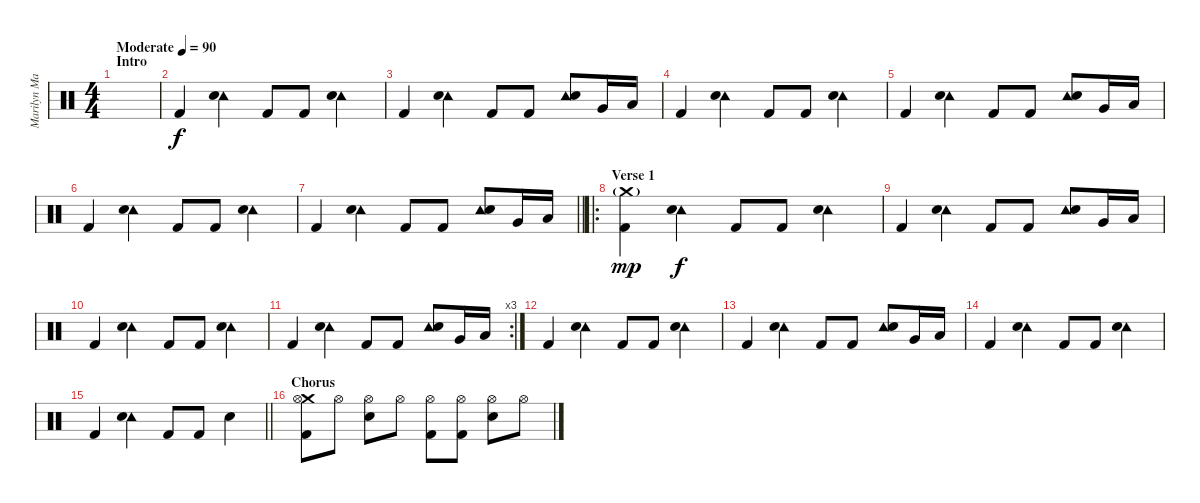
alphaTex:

\track ("Marilyn Manson" "Marilyn Ma") {instrument percussion}
\staff {score}
\articulation defaults
\ts (4 4)
\section ("" "Intro")
\tempo (90 "Moderate")
\clef neutral
\ks c
|
"Kick (hit) 2".4 ("Tambourine (hit)" "Snare (hit) 2").4 "Kick (hit) 2".8 "Kick (hit) 2".8 ("Tambourine (hit)" "Snare (hit) 2").4 |
"Kick (hit) 2".4 ("Tambourine (hit)" "Snare (hit) 2").4 "Kick (hit) 2".8 "Kick (hit) 2".8 ("Tambourine (hit)" "Snare (hit) 2").8 "Very Low Tom (hit)".16 "Low Floor Tom (hit)".16 |
"Kick (hit) 2".4 ("Tambourine (hit)" "Snare (hit) 2").4 "Kick (hit) 2".8 "Kick (hit) 2".8 ("Tambourine (hit)" "Snare (hit) 2").4 |
"Kick (hit) 2".4 ("Tambourine (hit)" "Snare (hit) 2").4 "Kick (hit) 2".8 "Kick (hit) 2".8 ("Tambourine (hit)" "Snare (hit) 2").8 "Very Low Tom (hit)".16 "Low Floor Tom (hit)".16 |
"Kick (hit) 2".4 ("Tambourine (hit)" "Snare (hit) 2").4 "Kick (hit) 2".8 "Kick (hit) 2".8 ("Tambourine (hit)" "Snare (hit) 2").4 |
\barLineRight lightlight "Kick (hit) 2".4
("Tambourine (hit)" "Snare (hit) 2").4 "Kick (hit) 2".8 "Kick (hit) 2".8 ("Tambourine (hit)" "Snare (hit) 2").8 "Very Low Tom (hit)".16 "Low Floor Tom (hit)".16 |
\ro
\section ("" "Verse 1")
("Crash medium (hit)"{g} "Kick (hit) 2").4{dy mp} ("Tambourine (hit)" "Snare (hit) 2").4{dy f} "Kick (hit) 2".8 "Kick (hit) 2".8 ("Tambourine (hit)" "Snare (hit) 2").4 |
"Kick (hit) 2".4 ("Tambourine (hit)" "Snare (hit) 2").4 "Kick (hit) 2".8 "Kick (hit) 2".8 ("Tambourine (hit)" "Snare (hit) 2").8 "Very Low Tom (hit)".16 "Low Floor Tom (hit)".16 |
"Kick (hit) 2".4 ("Tambourine (hit)" "Snare (hit) 2").4 "Kick (hit) 2".8 "Kick (hit) 2".8 ("Tambourine (hit)" "Snare (hit) 2").4 |
\rc 3 "Kick (hit) 2".4
("Tambourine (hit)" "Snare (hit) 2").4 "Kick (hit) 2".8 "Kick (hit) 2".8 ("Tambourine (hit)" "Snare (hit) 2").8 "Very Low Tom (hit)".16 "Low Floor Tom (hit)".16 |
"Kick (hit) 2".4 ("Tambourine (hit)" "Snare (hit) 2").4 "Kick (hit) 2".8 "Kick (hit) 2".8 ("Tambourine (hit)" "Snare (hit) 2").4 |
"Kick (hit) 2".4 ("Tambourine (hit)" "Snare (hit) 2").4 "Kick (hit) 2".8 "Kick (hit) 2".8 ("Tambourine (hit)" "Snare (hit) 2").8 "Very Low Tom (hit)".16 "Low Floor Tom (hit)".16 |
"Kick (hit) 2".4 ("Tambourine (hit)" "Snare (hit) 2").4 "Kick (hit) 2".8 "Kick (hit) 2".8 ("Tambourine (hit)" "Snare (hit) 2").4 |
\barLineRight lightlight "Kick (hit) 2".4
("Tambourine (hit)" "Snare (hit) 2").4 "Kick (hit) 2".8 "Kick (hit) 2".8 "Snare (hit) 2".4{volume 16} |
\section ("" "Chorus")
("Crash medium (hit)" "Hi-Hat (open)" "Kick (hit) 2").8{volume 13} "Hi-Hat (open)".8 ("Hi-Hat (open)" "Snare (hit) 2").8 "Hi-Hat (open)".8 ("Hi-Hat (open)" "Kick (hit) 2").8 ("Hi-Hat (open)" "Kick (hit) 2").8 ("Hi-Hat (open)" "Snare (hit) 2").8 "Hi-Hat (open)".8
